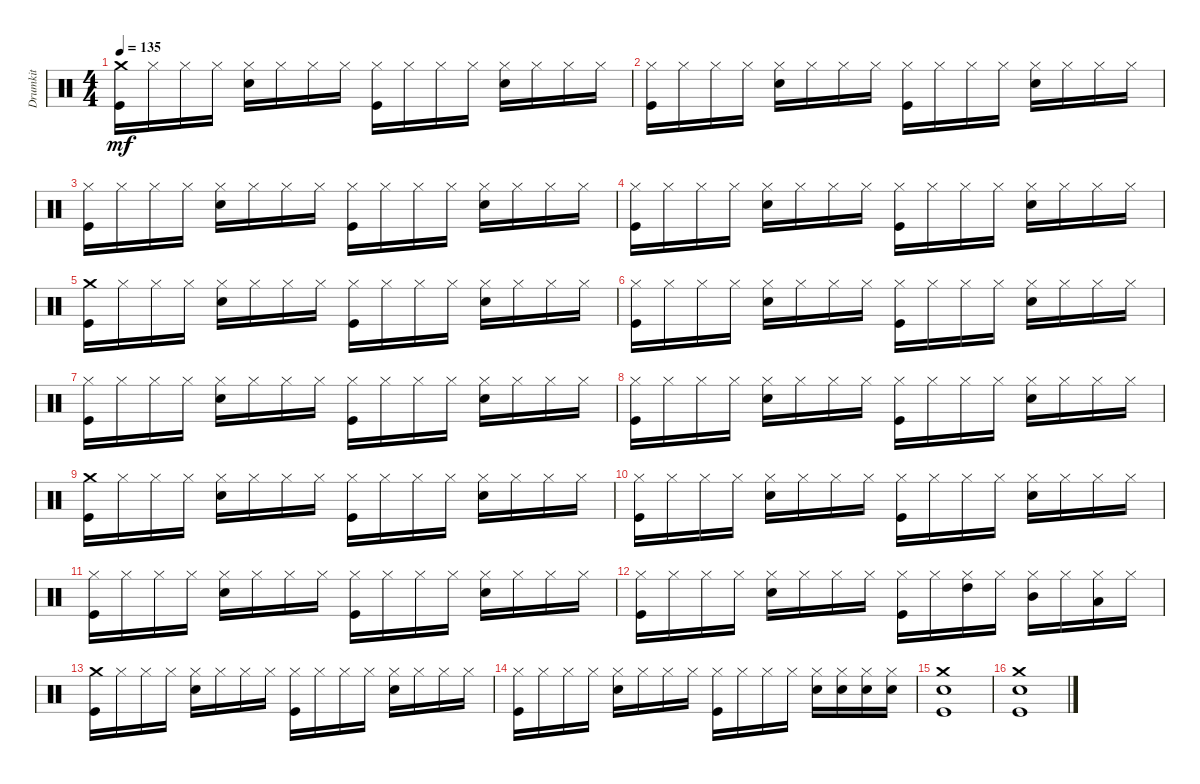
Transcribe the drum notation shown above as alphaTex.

\track ("Drumkit" "Drumkit") {instrument percussion}
\staff {score}
\articulation defaults
\ts (4 4)
\tempo 135
\clef neutral
\ks c
("Crash medium (hit)" "Kick (hit)").16{dy mf} "Hi-Hat (closed)".16 "Hi-Hat (closed)".16 "Hi-Hat (closed)".16 ("Hi-Hat (closed)" "Snare (hit) 2").16 "Hi-Hat (closed)".16 "Hi-Hat (closed)".16 "Hi-Hat (closed)".16 ("Hi-Hat (closed)" "Kick (hit)").16 "Hi-Hat (closed)".16 "Hi-Hat (closed)".16 "Hi-Hat (closed)".16 ("Hi-Hat (closed)" "Snare (hit) 2").16 "Hi-Hat (closed)".16 "Hi-Hat (closed)".16 "Hi-Hat (closed)".16 |
("Hi-Hat (closed)" "Kick (hit)").16 "Hi-Hat (closed)".16 "Hi-Hat (closed)".16 "Hi-Hat (closed)".16 ("Hi-Hat (closed)" "Snare (hit) 2").16 "Hi-Hat (closed)".16 "Hi-Hat (closed)".16 "Hi-Hat (closed)".16 ("Hi-Hat (closed)" "Kick (hit)").16 "Hi-Hat (closed)".16 "Hi-Hat (closed)".16 "Hi-Hat (closed)".16 ("Hi-Hat (closed)" "Snare (hit) 2").16 "Hi-Hat (closed)".16 "Hi-Hat (closed)".16 "Hi-Hat (closed)".16 |
("Hi-Hat (closed)" "Kick (hit)").16 "Hi-Hat (closed)".16 "Hi-Hat (closed)".16 "Hi-Hat (closed)".16 ("Hi-Hat (closed)" "Snare (hit) 2").16 "Hi-Hat (closed)".16 "Hi-Hat (closed)".16 "Hi-Hat (closed)".16 ("Hi-Hat (closed)" "Kick (hit)").16 "Hi-Hat (closed)".16 "Hi-Hat (closed)".16 "Hi-Hat (closed)".16 ("Hi-Hat (closed)" "Snare (hit) 2").16 "Hi-Hat (closed)".16 "Hi-Hat (closed)".16 "Hi-Hat (closed)".16 |
("Hi-Hat (closed)" "Kick (hit)").16 "Hi-Hat (closed)".16 "Hi-Hat (closed)".16 "Hi-Hat (closed)".16 ("Hi-Hat (closed)" "Snare (hit) 2").16 "Hi-Hat (closed)".16 "Hi-Hat (closed)".16 "Hi-Hat (closed)".16 ("Hi-Hat (closed)" "Kick (hit)").16 "Hi-Hat (closed)".16 "Hi-Hat (closed)".16 "Hi-Hat (closed)".16 ("Hi-Hat (closed)" "Snare (hit) 2").16 "Hi-Hat (closed)".16 "Hi-Hat (closed)".16 "Hi-Hat (closed)".16 |
("Crash medium (hit)" "Kick (hit)").16 "Hi-Hat (closed)".16 "Hi-Hat (closed)".16 "Hi-Hat (closed)".16 ("Hi-Hat (closed)" "Snare (hit) 2").16 "Hi-Hat (closed)".16 "Hi-Hat (closed)".16 "Hi-Hat (closed)".16 ("Hi-Hat (closed)" "Kick (hit)").16 "Hi-Hat (closed)".16 "Hi-Hat (closed)".16 "Hi-Hat (closed)".16 ("Hi-Hat (closed)" "Snare (hit) 2").16 "Hi-Hat (closed)".16 "Hi-Hat (closed)".16 "Hi-Hat (closed)".16 |
("Hi-Hat (closed)" "Kick (hit)").16 "Hi-Hat (closed)".16 "Hi-Hat (closed)".16 "Hi-Hat (closed)".16 ("Hi-Hat (closed)" "Snare (hit) 2").16 "Hi-Hat (closed)".16 "Hi-Hat (closed)".16 "Hi-Hat (closed)".16 ("Hi-Hat (closed)" "Kick (hit)").16 "Hi-Hat (closed)".16 "Hi-Hat (closed)".16 "Hi-Hat (closed)".16 ("Hi-Hat (closed)" "Snare (hit) 2").16 "Hi-Hat (closed)".16 "Hi-Hat (closed)".16 "Hi-Hat (closed)".16 |
("Hi-Hat (closed)" "Kick (hit)").16 "Hi-Hat (closed)".16 "Hi-Hat (closed)".16 "Hi-Hat (closed)".16 ("Hi-Hat (closed)" "Snare (hit) 2").16 "Hi-Hat (closed)".16 "Hi-Hat (closed)".16 "Hi-Hat (closed)".16 ("Hi-Hat (closed)" "Kick (hit)").16 "Hi-Hat (closed)".16 "Hi-Hat (closed)".16 "Hi-Hat (closed)".16 ("Hi-Hat (closed)" "Snare (hit) 2").16 "Hi-Hat (closed)".16 "Hi-Hat (closed)".16 "Hi-Hat (closed)".16 |
("Hi-Hat (closed)" "Kick (hit)").16 "Hi-Hat (closed)".16 "Hi-Hat (closed)".16 "Hi-Hat (closed)".16 ("Hi-Hat (closed)" "Snare (hit) 2").16 "Hi-Hat (closed)".16 "Hi-Hat (closed)".16 "Hi-Hat (closed)".16 ("Hi-Hat (closed)" "Kick (hit)").16 "Hi-Hat (closed)".16 "Hi-Hat (closed)".16 "Hi-Hat (closed)".16 ("Hi-Hat (closed)" "Snare (hit) 2").16 "Hi-Hat (closed)".16 "Hi-Hat (closed)".16 "Hi-Hat (closed)".16 |
("Crash medium (hit)" "Kick (hit)").16 "Hi-Hat (closed)".16 "Hi-Hat (closed)".16 "Hi-Hat (closed)".16 ("Hi-Hat (closed)" "Snare (hit) 2").16 "Hi-Hat (closed)".16 "Hi-Hat (closed)".16 "Hi-Hat (closed)".16 ("Hi-Hat (closed)" "Kick (hit)").16 "Hi-Hat (closed)".16 "Hi-Hat (closed)".16 "Hi-Hat (closed)".16 ("Hi-Hat (closed)" "Snare (hit) 2").16 "Hi-Hat (closed)".16 "Hi-Hat (closed)".16 "Hi-Hat (closed)".16 |
("Hi-Hat (closed)" "Kick (hit)").16 "Hi-Hat (closed)".16 "Hi-Hat (closed)".16 "Hi-Hat (closed)".16 ("Hi-Hat (closed)" "Snare (hit) 2").16 "Hi-Hat (closed)".16 "Hi-Hat (closed)".16 "Hi-Hat (closed)".16 ("Hi-Hat (closed)" "Kick (hit)").16 "Hi-Hat (closed)".16 "Hi-Hat (closed)".16 "Hi-Hat (closed)".16 ("Hi-Hat (closed)" "Snare (hit) 2").16 "Hi-Hat (closed)".16 "Hi-Hat (closed)".16 "Hi-Hat (closed)".16 |
("Hi-Hat (closed)" "Kick (hit)").16 "Hi-Hat (closed)".16 "Hi-Hat (closed)".16 "Hi-Hat (closed)".16 ("Hi-Hat (closed)" "Snare (hit) 2").16 "Hi-Hat (closed)".16 "Hi-Hat (closed)".16 "Hi-Hat (closed)".16 ("Hi-Hat (closed)" "Kick (hit)").16 "Hi-Hat (closed)".16 "Hi-Hat (closed)".16 "Hi-Hat (closed)".16 ("Hi-Hat (closed)" "Snare (hit) 2").16 "Hi-Hat (closed)".16 "Hi-Hat (closed)".16 "Hi-Hat (closed)".16 |
("Hi-Hat (closed)" "Kick (hit)").16 "Hi-Hat (closed)".16 "Hi-Hat (closed)".16 "Hi-Hat (closed)".16 ("Hi-Hat (closed)" "Snare (hit) 2").16 "Hi-Hat (closed)".16 "Hi-Hat (closed)".16 "Hi-Hat (closed)".16 ("Hi-Hat (closed)" "Kick (hit)").16 "Hi-Hat (closed)".16 ("Hi-Hat (closed)" "High Tom (hit)").16 "Hi-Hat (closed)".16 ("Hi-Hat (closed)" "Mid Tom (hit)").16 "Hi-Hat (closed)".16 ("Hi-Hat (closed)" "Low Tom (hit)").16 "Hi-Hat (closed)".16 |
("Crash medium (hit)" "Kick (hit)").16 "Hi-Hat (closed)".16 "Hi-Hat (closed)".16 "Hi-Hat (closed)".16 ("Hi-Hat (closed)" "Snare (hit) 2").16 "Hi-Hat (closed)".16 "Hi-Hat (closed)".16 "Hi-Hat (closed)".16 ("Hi-Hat (closed)" "Kick (hit)").16 "Hi-Hat (closed)".16 "Hi-Hat (closed)".16 "Hi-Hat (closed)".16 ("Hi-Hat (closed)" "Snare (hit) 2").16 "Hi-Hat (closed)".16 "Hi-Hat (closed)".16 "Hi-Hat (closed)".16 |
("Hi-Hat (closed)" "Kick (hit)").16 "Hi-Hat (closed)".16 "Hi-Hat (closed)".16 "Hi-Hat (closed)".16 ("Hi-Hat (closed)" "Snare (hit) 2").16 "Hi-Hat (closed)".16 "Hi-Hat (closed)".16 "Hi-Hat (closed)".16 ("Hi-Hat (closed)" "Kick (hit)").16 "Hi-Hat (closed)".16 "Hi-Hat (closed)".16 "Hi-Hat (closed)".16 ("Hi-Hat (closed)" "Snare (hit) 2").16 ("Hi-Hat (closed)" "Snare (hit) 2").16 ("Hi-Hat (closed)" "Snare (hit) 2").16 ("Hi-Hat (closed)" "Snare (hit) 2").16 |
("Snare (hit) 2" "Crash medium (hit)" "Kick (hit)").1 |
("Snare (hit) 2" "Crash medium (hit)" "Kick (hit)").1
